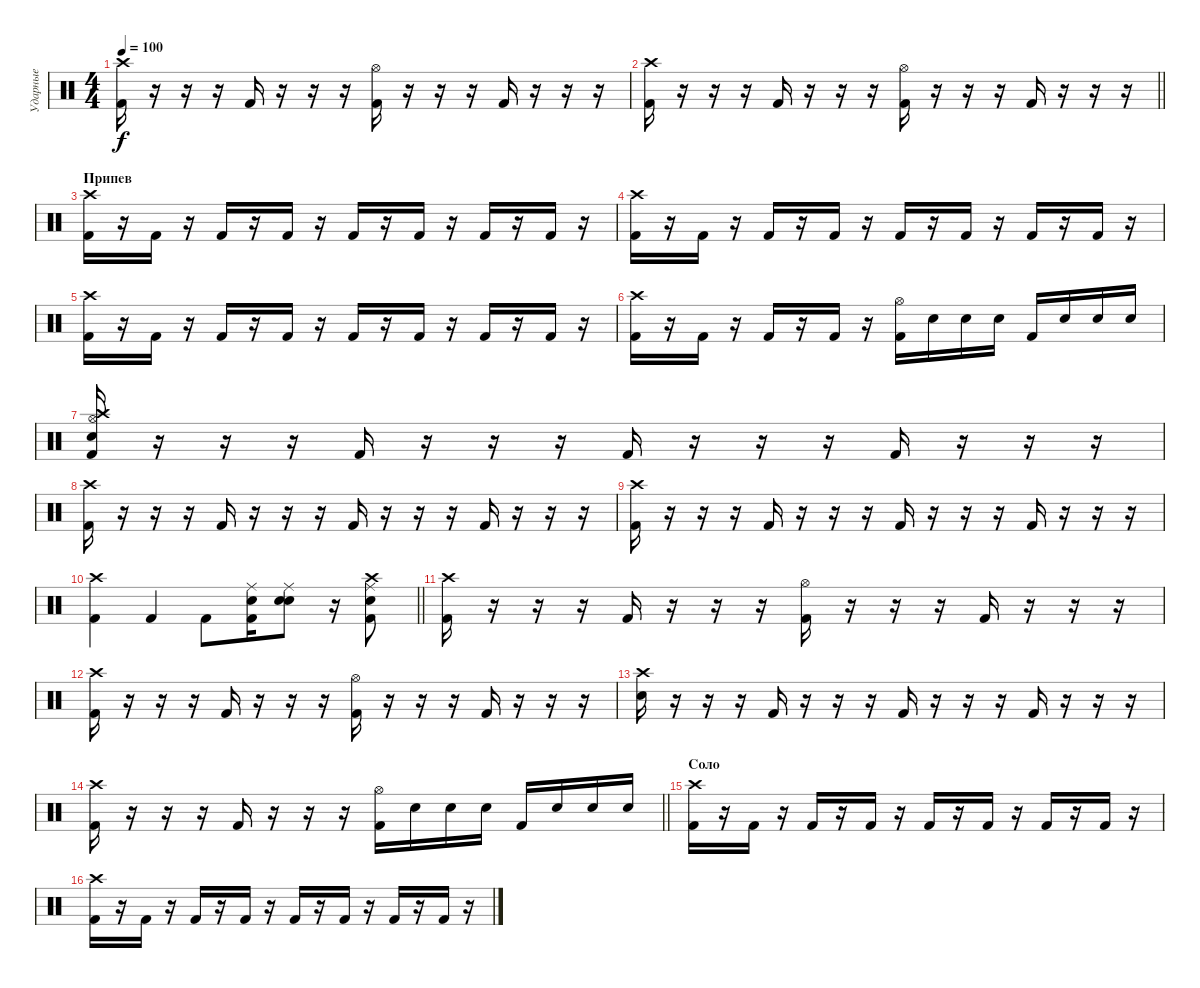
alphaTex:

\track ("Ударные" "Ударные") {instrument percussion}
\staff {score}
\articulation defaults
\ts (4 4)
\tempo 100
\clef neutral
\ks c
("Kick (hit) 2" "Crash high (hit)").16{dy f} r.16 r.16 r.16 "Kick (hit) 2".16 r.16 r.16 r.16 ("Kick (hit) 2" "Hi-Hat (open)").16 r.16 r.16 r.16 "Kick (hit) 2".16 r.16 r.16 r.16 |
\barLineRight lightlight
("Kick (hit) 2" "Crash high (hit)").16 r.16 r.16 r.16 "Kick (hit) 2".16 r.16 r.16 r.16 ("Kick (hit) 2" "Hi-Hat (open)").16 r.16 r.16 r.16 "Kick (hit) 2".16 r.16 r.16 r.16 |
\section ("" "Припев")
("Kick (hit) 2" "Crash high (hit)").16 r.16 "Kick (hit) 2".16 r.16 "Kick (hit) 2".16 r.16 "Kick (hit) 2".16 r.16 "Kick (hit) 2".16 r.16 "Kick (hit) 2".16 r.16 "Kick (hit) 2".16 r.16 "Kick (hit) 2".16 r.16 |
("Kick (hit) 2" "Crash high (hit)").16 r.16 "Kick (hit) 2".16 r.16 "Kick (hit) 2".16 r.16 "Kick (hit) 2".16 r.16 "Kick (hit) 2".16 r.16 "Kick (hit) 2".16 r.16 "Kick (hit) 2".16 r.16 "Kick (hit) 2".16 r.16 |
("Kick (hit) 2" "Crash high (hit)").16 r.16 "Kick (hit) 2".16 r.16 "Kick (hit) 2".16 r.16 "Kick (hit) 2".16 r.16 "Kick (hit) 2".16 r.16 "Kick (hit) 2".16 r.16 "Kick (hit) 2".16 r.16 "Kick (hit) 2".16 r.16 |
("Kick (hit) 2" "Crash high (hit)").16 r.16 "Kick (hit) 2".16 r.16 "Kick (hit) 2".16 r.16 "Kick (hit) 2".16 r.16 ("Kick (hit) 2" "Hi-Hat (open)").16 "Snare (hit) 2".16 "Snare (hit) 2".16 "Snare (hit) 2".16 "Kick (hit) 2".16 "Snare (hit) 2".16 "Snare (hit) 2".16 "Snare (hit) 2".16 |
("Snare (hit) 2" "Crash high (hit)" "Hi-Hat (open)" "Kick (hit) 2").16 r.16 r.16 r.16 "Kick (hit) 2".16 r.16 r.16 r.16 "Kick (hit) 2".16 r.16 r.16 r.16 "Kick (hit) 2".16 r.16 r.16 r.16 |
("Kick (hit) 2" "Crash high (hit)").16 r.16 r.16 r.16 "Kick (hit) 2".16 r.16 r.16 r.16 "Kick (hit) 2".16 r.16 r.16 r.16 "Kick (hit) 2".16 r.16 r.16 r.16 |
("Kick (hit) 2" "Crash high (hit)").16 r.16 r.16 r.16 "Kick (hit) 2".16 r.16 r.16 r.16 "Kick (hit) 2".16 r.16 r.16 r.16 "Kick (hit) 2".16 r.16 r.16 r.16 |
\barLineRight lightlight
("Kick (hit) 2" "Crash high (hit)").4 "Kick (hit) 2".4 "Kick (hit) 2".8 ("Snare (hit) 2" "Kick (hit) 2" "Ride (middle)").16 ("Snare (hit) 2" "Electric Snare (hit)" "Ride (middle)").8 r.16 ("Snare (hit) 2" "Kick (hit) 2" "Crash high (hit)" "Ride (middle)").8 |
("Kick (hit) 2" "Crash high (hit)").16 r.16 r.16 r.16 "Kick (hit) 2".16 r.16 r.16 r.16 ("Kick (hit) 2" "Hi-Hat (open)").16 r.16 r.16 r.16 "Kick (hit) 2".16 r.16 r.16 r.16 |
("Kick (hit) 2" "Crash high (hit)").16 r.16 r.16 r.16 "Kick (hit) 2".16 r.16 r.16 r.16 ("Kick (hit) 2" "Hi-Hat (open)").16 r.16 r.16 r.16 "Kick (hit) 2".16 r.16 r.16 r.16 |
("Snare (hit) 2" "Crash high (hit)").16 r.16 r.16 r.16 "Kick (hit) 2".16 r.16 r.16 r.16 "Kick (hit) 2".16 r.16 r.16 r.16 "Kick (hit) 2".16 r.16 r.16 r.16 |
\barLineRight lightlight
("Kick (hit) 2" "Crash high (hit)").16 r.16 r.16 r.16 "Kick (hit) 2".16 r.16 r.16 r.16 ("Kick (hit) 2" "Hi-Hat (open)").16 "Snare (hit) 2".16 "Snare (hit) 2".16 "Snare (hit) 2".16 "Kick (hit) 2".16 "Snare (hit) 2".16 "Snare (hit) 2".16 "Snare (hit) 2".16 |
\section ("" "Соло")
("Kick (hit) 2" "Crash high (hit)").16 r.16 "Kick (hit) 2".16 r.16 "Kick (hit) 2".16 r.16 "Kick (hit) 2".16 r.16 "Kick (hit) 2".16 r.16 "Kick (hit) 2".16 r.16 "Kick (hit) 2".16 r.16 "Kick (hit) 2".16 r.16 |
("Kick (hit) 2" "Crash high (hit)").16 r.16 "Kick (hit) 2".16 r.16 "Kick (hit) 2".16 r.16 "Kick (hit) 2".16 r.16 "Kick (hit) 2".16 r.16 "Kick (hit) 2".16 r.16 "Kick (hit) 2".16 r.16 "Kick (hit) 2".16 r.16
